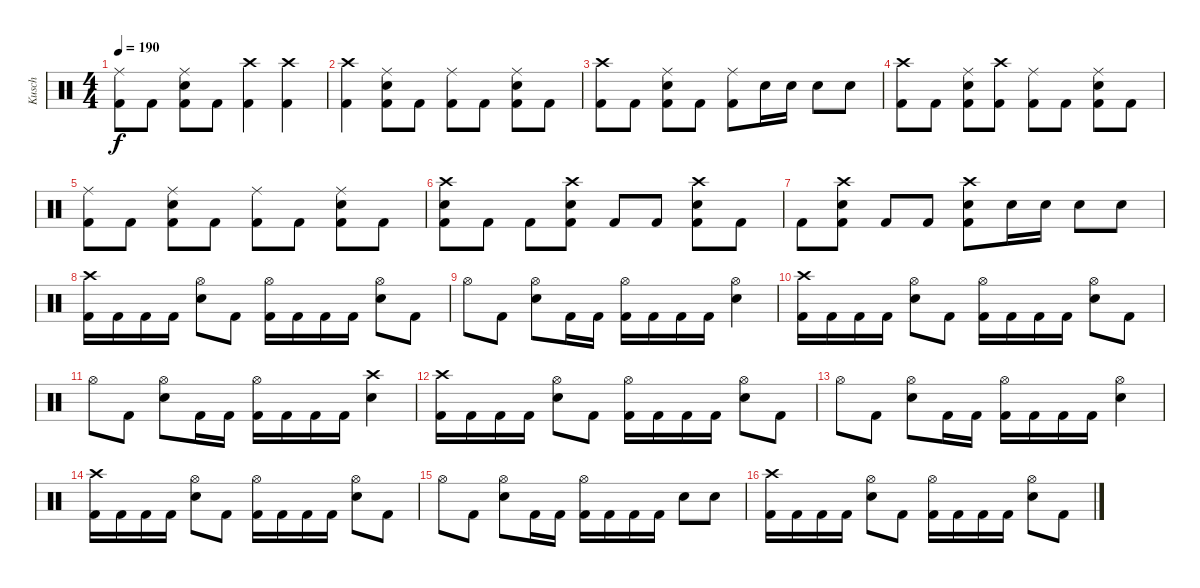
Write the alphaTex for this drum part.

\track ("Kusch" "Kusch") {instrument percussion}
\staff {score}
\articulation defaults
\ts (4 4)
\tempo 190
\clef neutral
\ks c
("Ride (middle)" "Kick (hit) 2").8{dy f} "Kick (hit) 2".8 ("Ride (middle)" "Electric Snare (hit)" "Kick (hit) 2").8 "Kick (hit) 2".8 ("Crash high (hit)" "Kick (hit) 2").4 ("Crash high (hit)" "Kick (hit) 2").4 |
("Crash high (hit)" "Kick (hit) 2").4 ("Ride (middle)" "Electric Snare (hit)" "Kick (hit) 2").8 "Kick (hit) 2".8 ("Ride (middle)" "Kick (hit) 2").8 "Kick (hit) 2".8 ("Ride (middle)" "Electric Snare (hit)" "Kick (hit) 2").8 "Kick (hit) 2".8 |
("Crash high (hit)" "Kick (hit) 2").8 "Kick (hit) 2".8 ("Ride (middle)" "Electric Snare (hit)" "Kick (hit) 2").8 "Kick (hit) 2".8 ("Ride (middle)" "Kick (hit) 2").8 "Electric Snare (hit)".16 "Electric Snare (hit)".16 "Electric Snare (hit)".8 "Electric Snare (hit)".8 |
("Crash high (hit)" "Kick (hit) 2").8 "Kick (hit) 2".8 ("Ride (middle)" "Electric Snare (hit)" "Kick (hit) 2").8 ("Crash high (hit)" "Kick (hit) 2").8 ("Ride (middle)" "Kick (hit) 2").8 "Kick (hit) 2".8 ("Ride (middle)" "Electric Snare (hit)" "Kick (hit) 2").8 "Kick (hit) 2".8 |
("Ride (middle)" "Kick (hit) 2").8 "Kick (hit) 2".8 ("Ride (middle)" "Electric Snare (hit)" "Kick (hit) 2").8 "Kick (hit) 2".8 ("Ride (middle)" "Kick (hit) 2").8 "Kick (hit) 2".8 ("Ride (middle)" "Electric Snare (hit)" "Kick (hit) 2").8 "Kick (hit) 2".8 |
("Crash high (hit)" "Electric Snare (hit)" "Kick (hit) 2").8 "Kick (hit) 2".8 "Kick (hit) 2".8 ("Crash high (hit)" "Electric Snare (hit)" "Kick (hit) 2").8 "Kick (hit) 2".8 "Kick (hit) 2".8 ("Crash high (hit)" "Electric Snare (hit)" "Kick (hit) 2").8 "Kick (hit) 2".8 |
"Kick (hit) 2".8 ("Crash high (hit)" "Electric Snare (hit)" "Kick (hit) 2").8 "Kick (hit) 2".8 "Kick (hit) 2".8 ("Crash high (hit)" "Electric Snare (hit)" "Kick (hit) 2").8 "Electric Snare (hit)".16 "Electric Snare (hit)".16 "Electric Snare (hit)".8 "Electric Snare (hit)".8 |
("Crash high (hit)" "Kick (hit) 2").16 "Kick (hit) 2".16 "Kick (hit) 2".16 "Kick (hit) 2".16 ("Hi-Hat (open)" "Electric Snare (hit)").8 "Kick (hit) 2".8 ("Hi-Hat (open)" "Kick (hit) 2").16 "Kick (hit) 2".16 "Kick (hit) 2".16 "Kick (hit) 2".16 ("Hi-Hat (open)" "Electric Snare (hit)").8 "Kick (hit) 2".8 |
"Hi-Hat (open)".8 "Kick (hit) 2".8 ("Hi-Hat (open)" "Electric Snare (hit)").8 "Kick (hit) 2".16 "Kick (hit) 2".16 ("Hi-Hat (open)" "Kick (hit) 2").16 "Kick (hit) 2".16 "Kick (hit) 2".16 "Kick (hit) 2".16 ("Hi-Hat (open)" "Electric Snare (hit)").4 |
("Crash high (hit)" "Kick (hit) 2").16 "Kick (hit) 2".16 "Kick (hit) 2".16 "Kick (hit) 2".16 ("Hi-Hat (open)" "Electric Snare (hit)").8 "Kick (hit) 2".8 ("Hi-Hat (open)" "Kick (hit) 2").16 "Kick (hit) 2".16 "Kick (hit) 2".16 "Kick (hit) 2".16 ("Hi-Hat (open)" "Electric Snare (hit)").8 "Kick (hit) 2".8 |
"Hi-Hat (open)".8 "Kick (hit) 2".8 ("Hi-Hat (open)" "Electric Snare (hit)").8 "Kick (hit) 2".16 "Kick (hit) 2".16 ("Hi-Hat (open)" "Kick (hit) 2").16 "Kick (hit) 2".16 "Kick (hit) 2".16 "Kick (hit) 2".16 ("Crash high (hit)" "Electric Snare (hit)").4 |
("Crash high (hit)" "Kick (hit) 2").16 "Kick (hit) 2".16 "Kick (hit) 2".16 "Kick (hit) 2".16 ("Hi-Hat (open)" "Electric Snare (hit)").8 "Kick (hit) 2".8 ("Hi-Hat (open)" "Kick (hit) 2").16 "Kick (hit) 2".16 "Kick (hit) 2".16 "Kick (hit) 2".16 ("Hi-Hat (open)" "Electric Snare (hit)").8 "Kick (hit) 2".8 |
"Hi-Hat (open)".8 "Kick (hit) 2".8 ("Hi-Hat (open)" "Electric Snare (hit)").8 "Kick (hit) 2".16 "Kick (hit) 2".16 ("Hi-Hat (open)" "Kick (hit) 2").16 "Kick (hit) 2".16 "Kick (hit) 2".16 "Kick (hit) 2".16 ("Hi-Hat (open)" "Electric Snare (hit)").4 |
("Crash high (hit)" "Kick (hit) 2").16 "Kick (hit) 2".16 "Kick (hit) 2".16 "Kick (hit) 2".16 ("Hi-Hat (open)" "Electric Snare (hit)").8 "Kick (hit) 2".8 ("Hi-Hat (open)" "Kick (hit) 2").16 "Kick (hit) 2".16 "Kick (hit) 2".16 "Kick (hit) 2".16 ("Hi-Hat (open)" "Electric Snare (hit)").8 "Kick (hit) 2".8 |
"Hi-Hat (open)".8 "Kick (hit) 2".8 ("Hi-Hat (open)" "Electric Snare (hit)").8 "Kick (hit) 2".16 "Kick (hit) 2".16 ("Hi-Hat (open)" "Kick (hit) 2").16 "Kick (hit) 2".16 "Kick (hit) 2".16 "Kick (hit) 2".16 "Electric Snare (hit)".8 "Electric Snare (hit)".8 |
("Crash high (hit)" "Kick (hit) 2").16 "Kick (hit) 2".16 "Kick (hit) 2".16 "Kick (hit) 2".16 ("Hi-Hat (open)" "Electric Snare (hit)").8 "Kick (hit) 2".8 ("Hi-Hat (open)" "Kick (hit) 2").16 "Kick (hit) 2".16 "Kick (hit) 2".16 "Kick (hit) 2".16 ("Hi-Hat (open)" "Electric Snare (hit)").8 "Kick (hit) 2".8
